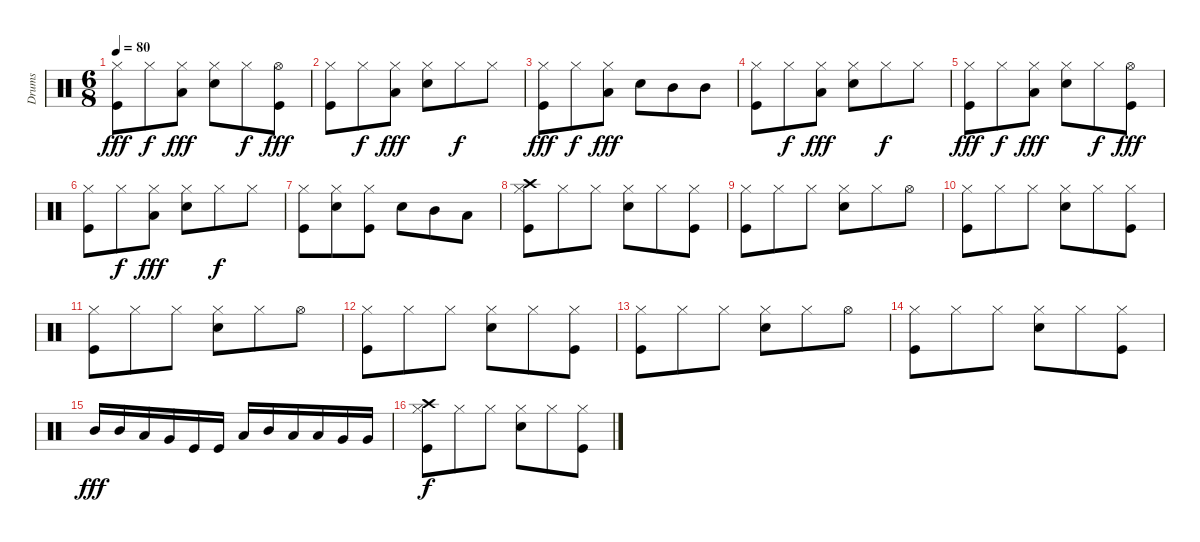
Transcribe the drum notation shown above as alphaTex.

\track ("Drums" "Drums") {instrument percussion}
\staff {score}
\articulation defaults
\ts (6 8)
\tempo 80
\clef neutral
\ks c
("Hi-Hat (closed)" "Kick (hit)").8{dy fff} "Hi-Hat (closed)".8{dy f} ("Hi-Hat (closed)" "Low Tom (hit)").8{dy fff} ("Hi-Hat (closed)" "Electric Snare (hit)").8 "Hi-Hat (closed)".8{dy f} ("Hi-Hat (open)" "Kick (hit)").8{dy fff} |
("Hi-Hat (closed)" "Kick (hit)").8 "Hi-Hat (closed)".8{dy f} ("Hi-Hat (closed)" "Low Tom (hit)").8{dy fff} ("Hi-Hat (closed)" "Electric Snare (hit)").8 "Hi-Hat (closed)".8{dy f} "Hi-Hat (closed)".8 |
("Hi-Hat (closed)" "Kick (hit)").8{dy fff} "Hi-Hat (closed)".8{dy f} ("Hi-Hat (closed)" "Low Tom (hit)").8{dy fff} "Electric Snare (hit)".8 "Mid Tom (hit)".8 "Mid Tom (hit)".8 |
("Hi-Hat (closed)" "Kick (hit)").8 "Hi-Hat (closed)".8{dy f} ("Hi-Hat (closed)" "Low Tom (hit)").8{dy fff} ("Hi-Hat (closed)" "Electric Snare (hit)").8 "Hi-Hat (closed)".8{dy f} "Hi-Hat (closed)".8 |
("Hi-Hat (closed)" "Kick (hit)").8{dy fff} "Hi-Hat (closed)".8{dy f} ("Hi-Hat (closed)" "Low Tom (hit)").8{dy fff} ("Hi-Hat (closed)" "Electric Snare (hit)").8 "Hi-Hat (closed)".8{dy f} ("Hi-Hat (open)" "Kick (hit)").8{dy fff} |
("Hi-Hat (closed)" "Kick (hit)").8 "Hi-Hat (closed)".8{dy f} ("Hi-Hat (closed)" "Low Tom (hit)").8{dy fff} ("Hi-Hat (closed)" "Electric Snare (hit)").8 "Hi-Hat (closed)".8{dy f} "Hi-Hat (closed)".8 |
("Hi-Hat (closed)" "Kick (hit)").8 ("Hi-Hat (closed)" "Electric Snare (hit)").8 ("Hi-Hat (closed)" "Kick (hit)").8 "Electric Snare (hit)".8 "Mid Tom (hit)".8 "Low Tom (hit)".8 |
("Hi-Hat (closed)" "Kick (hit)" "Crash high (hit)").8 "Hi-Hat (closed)".8 "Hi-Hat (closed)".8 ("Hi-Hat (closed)" "Electric Snare (hit)").8 "Hi-Hat (closed)".8 ("Hi-Hat (closed)" "Kick (hit)").8 |
("Hi-Hat (closed)" "Kick (hit)").8 "Hi-Hat (closed)".8 "Hi-Hat (closed)".8 ("Hi-Hat (closed)" "Electric Snare (hit)").8 "Hi-Hat (closed)".8 "Hi-Hat (open)".8 |
("Hi-Hat (closed)" "Kick (hit)").8 "Hi-Hat (closed)".8 "Hi-Hat (closed)".8 ("Hi-Hat (closed)" "Electric Snare (hit)").8 "Hi-Hat (closed)".8 ("Hi-Hat (closed)" "Kick (hit)").8{txt ""} |
("Hi-Hat (closed)" "Kick (hit)").8 "Hi-Hat (closed)".8 "Hi-Hat (closed)".8 ("Hi-Hat (closed)" "Electric Snare (hit)").8 "Hi-Hat (closed)".8 "Hi-Hat (open)".8 |
("Hi-Hat (closed)" "Kick (hit)").8 "Hi-Hat (closed)".8 "Hi-Hat (closed)".8 ("Hi-Hat (closed)" "Electric Snare (hit)").8 "Hi-Hat (closed)".8 ("Hi-Hat (closed)" "Kick (hit)").8 |
("Hi-Hat (closed)" "Kick (hit)").8 "Hi-Hat (closed)".8 "Hi-Hat (closed)".8 ("Hi-Hat (closed)" "Electric Snare (hit)").8 "Hi-Hat (closed)".8 "Hi-Hat (open)".8 |
("Hi-Hat (closed)" "Kick (hit)").8 "Hi-Hat (closed)".8 "Hi-Hat (closed)".8 ("Hi-Hat (closed)" "Electric Snare (hit)").8 "Hi-Hat (closed)".8 ("Hi-Hat (closed)" "Kick (hit)").8 |
"Mid Tom (hit)".16{dy fff} "Mid Tom (hit)".16 "Low Tom (hit)".16 "Very Low Tom (hit)".16 "Kick (hit)".16 "Kick (hit)".16 "Low Tom (hit)".16 "Mid Tom (hit)".16 "Low Tom (hit)".16 "Low Tom (hit)".16 "Very Low Tom (hit)".16 "Very Low Tom (hit)".16 |
("Hi-Hat (closed)" "Kick (hit)" "Crash high (hit)").8{dy f} "Hi-Hat (closed)".8 "Hi-Hat (closed)".8 ("Hi-Hat (closed)" "Electric Snare (hit)").8 "Hi-Hat (closed)".8 ("Hi-Hat (closed)" "Kick (hit)").8
